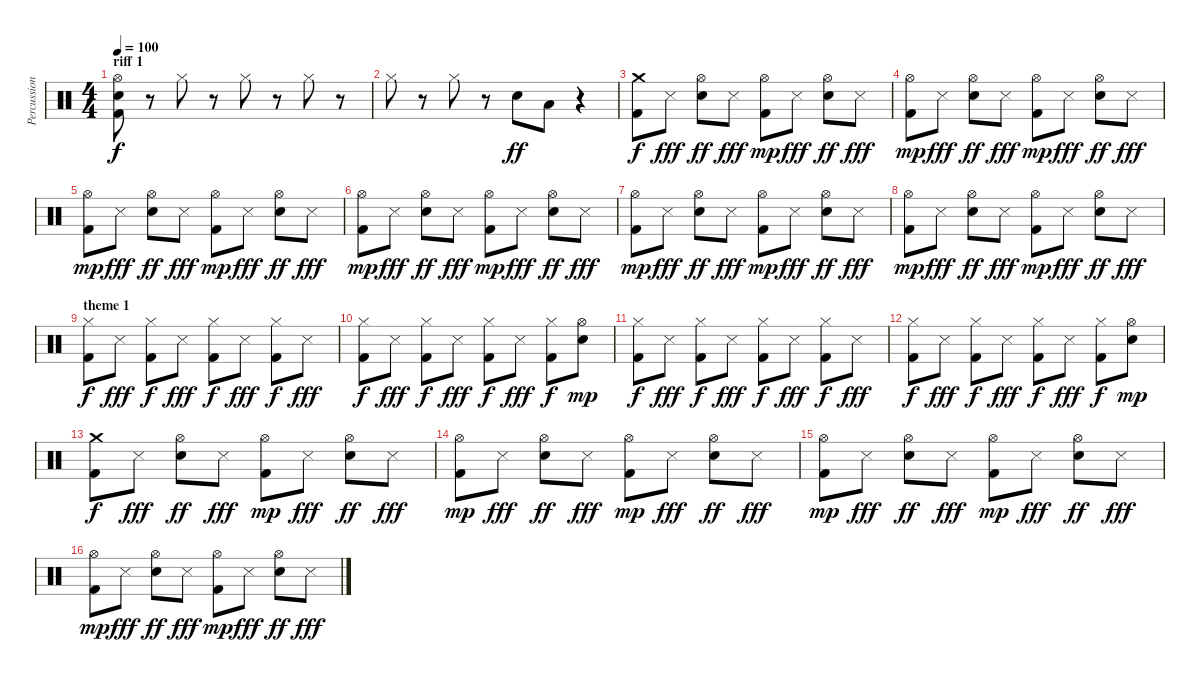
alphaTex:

\track ("Percussions" "Percussion") {instrument percussion}
\staff {score}
\articulation defaults
\ts (4 4)
\section ("" "riff 1")
\tempo 100
\clef neutral
\ks c
("Hi-Hat (open)" "Electric Snare (hit)" "Kick (hit) 2").8{dy f} r.8 "Hi-Hat (closed)".8 r.8 "Hi-Hat (closed)".8 r.8 "Hi-Hat (closed)".8 r.8 |
"Hi-Hat (closed)".8 r.8 "Hi-Hat (closed)".8 r.8 "Electric Snare (hit)".8{dy ff} "Low Tom (hit)".8 r.4 |
("Crash medium (hit)" "Kick (hit) 2").8{dy f} "Snare (side stick) 3".8{dy fff} ("Hi-Hat (open)" "Electric Snare (hit)").8{dy ff} "Snare (side stick) 3".8{dy fff} ("Hi-Hat (open)" "Kick (hit) 2").8{dy mp} "Snare (side stick) 3".8{dy fff} ("Hi-Hat (open)" "Electric Snare (hit)").8{dy ff} "Snare (side stick) 3".8{dy fff} |
("Hi-Hat (open)" "Kick (hit) 2").8{dy mp} "Snare (side stick) 3".8{dy fff} ("Hi-Hat (open)" "Electric Snare (hit)").8{dy ff} "Snare (side stick) 3".8{dy fff} ("Hi-Hat (open)" "Kick (hit) 2").8{dy mp} "Snare (side stick) 3".8{dy fff} ("Hi-Hat (open)" "Electric Snare (hit)").8{dy ff} "Snare (side stick) 3".8{dy fff} |
("Hi-Hat (open)" "Kick (hit) 2").8{dy mp} "Snare (side stick) 3".8{dy fff} ("Hi-Hat (open)" "Electric Snare (hit)").8{dy ff} "Snare (side stick) 3".8{dy fff} ("Hi-Hat (open)" "Kick (hit) 2").8{dy mp} "Snare (side stick) 3".8{dy fff} ("Hi-Hat (open)" "Electric Snare (hit)").8{dy ff} "Snare (side stick) 3".8{dy fff} |
("Hi-Hat (open)" "Kick (hit) 2").8{dy mp} "Snare (side stick) 3".8{dy fff} ("Hi-Hat (open)" "Electric Snare (hit)").8{dy ff} "Snare (side stick) 3".8{dy fff} ("Hi-Hat (open)" "Kick (hit) 2").8{dy mp} "Snare (side stick) 3".8{dy fff} ("Hi-Hat (open)" "Electric Snare (hit)").8{dy ff} "Snare (side stick) 3".8{dy fff} |
("Hi-Hat (open)" "Kick (hit) 2").8{dy mp} "Snare (side stick) 3".8{dy fff} ("Hi-Hat (open)" "Electric Snare (hit)").8{dy ff} "Snare (side stick) 3".8{dy fff} ("Hi-Hat (open)" "Kick (hit) 2").8{dy mp} "Snare (side stick) 3".8{dy fff} ("Hi-Hat (open)" "Electric Snare (hit)").8{dy ff} "Snare (side stick) 3".8{dy fff} |
("Hi-Hat (open)" "Kick (hit) 2").8{dy mp} "Snare (side stick) 3".8{dy fff} ("Hi-Hat (open)" "Electric Snare (hit)").8{dy ff} "Snare (side stick) 3".8{dy fff} ("Hi-Hat (open)" "Kick (hit) 2").8{dy mp} "Snare (side stick) 3".8{dy fff} ("Hi-Hat (open)" "Electric Snare (hit)").8{dy ff} "Snare (side stick) 3".8{dy fff} |
\section ("" "theme 1")
("Hi-Hat (closed)" "Kick (hit) 2").8{dy f} "Snare (side stick) 3".8{dy fff} ("Hi-Hat (closed)" "Kick (hit) 2").8{dy f} "Snare (side stick) 3".8{dy fff} ("Hi-Hat (closed)" "Kick (hit) 2").8{dy f} "Snare (side stick) 3".8{dy fff} ("Hi-Hat (closed)" "Kick (hit) 2").8{dy f} "Snare (side stick) 3".8{dy fff} |
("Hi-Hat (closed)" "Kick (hit) 2").8{dy f} "Snare (side stick) 3".8{dy fff} ("Hi-Hat (closed)" "Kick (hit) 2").8{dy f} "Snare (side stick) 3".8{dy fff} ("Hi-Hat (closed)" "Kick (hit) 2").8{dy f} "Snare (side stick) 3".8{dy fff} ("Hi-Hat (closed)" "Kick (hit) 2").8{dy f} ("Hi-Hat (open)" "Electric Snare (hit)").8{dy mp} |
("Hi-Hat (closed)" "Kick (hit) 2").8{dy f} "Snare (side stick) 3".8{dy fff} ("Hi-Hat (closed)" "Kick (hit) 2").8{dy f} "Snare (side stick) 3".8{dy fff} ("Hi-Hat (closed)" "Kick (hit) 2").8{dy f} "Snare (side stick) 3".8{dy fff} ("Hi-Hat (closed)" "Kick (hit) 2").8{dy f} "Snare (side stick) 3".8{dy fff} |
("Hi-Hat (closed)" "Kick (hit) 2").8{dy f} "Snare (side stick) 3".8{dy fff} ("Hi-Hat (closed)" "Kick (hit) 2").8{dy f} "Snare (side stick) 3".8{dy fff} ("Hi-Hat (closed)" "Kick (hit) 2").8{dy f} "Snare (side stick) 3".8{dy fff} ("Hi-Hat (closed)" "Kick (hit) 2").8{dy f} ("Hi-Hat (open)" "Electric Snare (hit)").8{dy mp} |
("Crash medium (hit)" "Kick (hit) 2").8{dy f} "Snare (side stick) 3".8{dy fff} ("Hi-Hat (open)" "Electric Snare (hit)").8{dy ff} "Snare (side stick) 3".8{dy fff} ("Hi-Hat (open)" "Kick (hit) 2").8{dy mp} "Snare (side stick) 3".8{dy fff} ("Hi-Hat (open)" "Electric Snare (hit)").8{dy ff} "Snare (side stick) 3".8{dy fff} |
("Hi-Hat (open)" "Kick (hit) 2").8{dy mp} "Snare (side stick) 3".8{dy fff} ("Hi-Hat (open)" "Electric Snare (hit)").8{dy ff} "Snare (side stick) 3".8{dy fff} ("Hi-Hat (open)" "Kick (hit) 2").8{dy mp} "Snare (side stick) 3".8{dy fff} ("Hi-Hat (open)" "Electric Snare (hit)").8{dy ff} "Snare (side stick) 3".8{dy fff} |
("Hi-Hat (open)" "Kick (hit) 2").8{dy mp} "Snare (side stick) 3".8{dy fff} ("Hi-Hat (open)" "Electric Snare (hit)").8{dy ff} "Snare (side stick) 3".8{dy fff} ("Hi-Hat (open)" "Kick (hit) 2").8{dy mp} "Snare (side stick) 3".8{dy fff} ("Hi-Hat (open)" "Electric Snare (hit)").8{dy ff} "Snare (side stick) 3".8{dy fff} |
("Hi-Hat (open)" "Kick (hit) 2").8{dy mp} "Snare (side stick) 3".8{dy fff} ("Hi-Hat (open)" "Electric Snare (hit)").8{dy ff} "Snare (side stick) 3".8{dy fff} ("Hi-Hat (open)" "Kick (hit) 2").8{dy mp} "Snare (side stick) 3".8{dy fff} ("Hi-Hat (open)" "Electric Snare (hit)").8{dy ff} "Snare (side stick) 3".8{dy fff}
